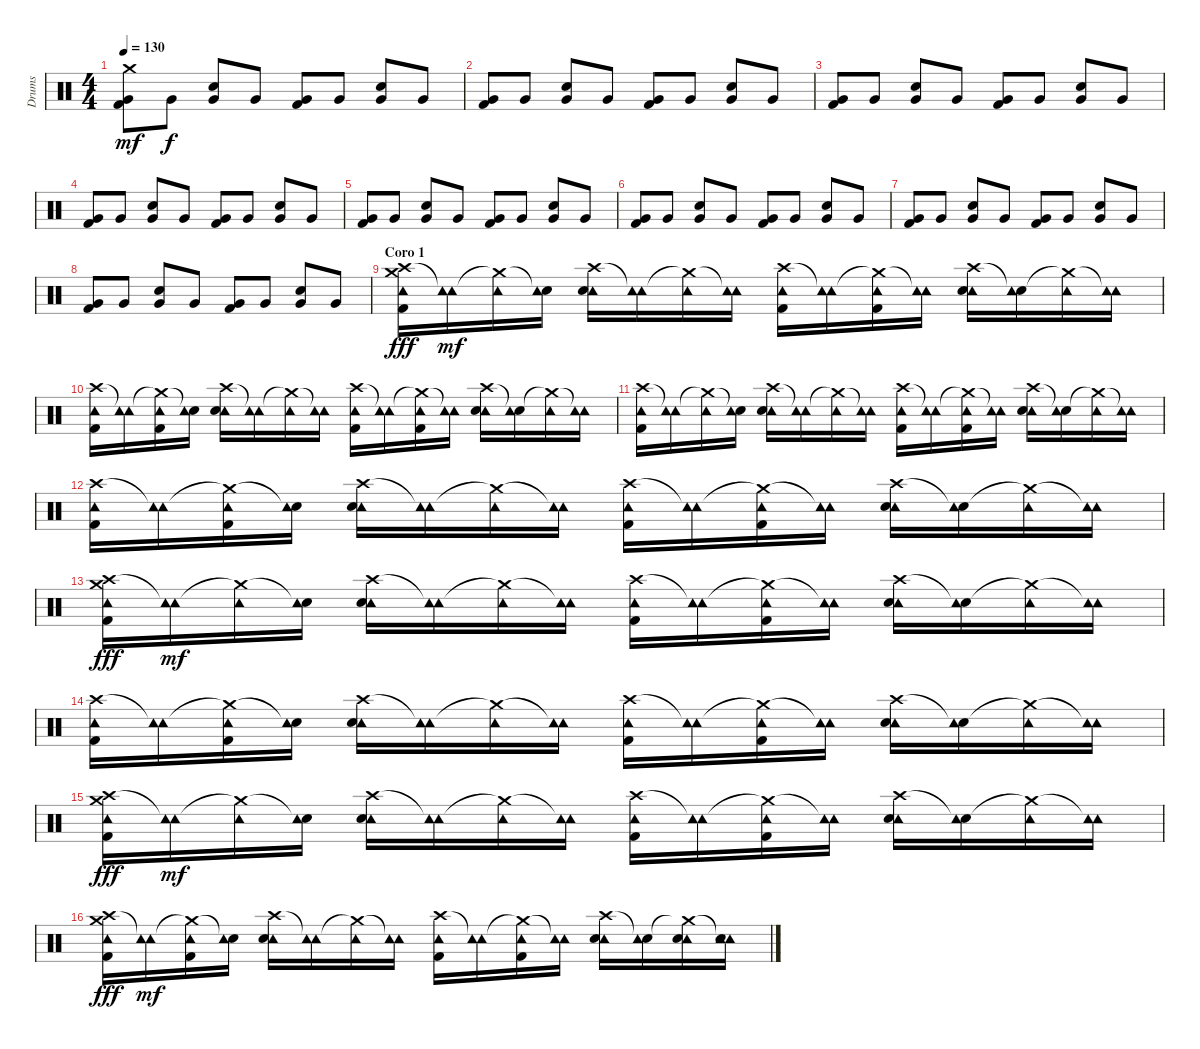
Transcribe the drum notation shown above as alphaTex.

\track ("Drums" "Drums") {instrument percussion}
\staff {score}
\articulation defaults
\ts (4 4)
\tempo 130
\clef neutral
\ks c
("Crash medium (hit)" "Very Low Tom (hit)" "Kick (hit) 2").8{dy mf} "Very Low Tom (hit)".8{dy f} ("Snare (hit) 2" "Very Low Tom (hit)").8 "Very Low Tom (hit)".8 ("Very Low Tom (hit)" "Kick (hit) 2").8 "Very Low Tom (hit)".8 ("Snare (hit) 2" "Very Low Tom (hit)").8 "Very Low Tom (hit)".8 |
("Very Low Tom (hit)" "Kick (hit) 2").8 "Very Low Tom (hit)".8 ("Snare (hit) 2" "Very Low Tom (hit)").8 "Very Low Tom (hit)".8 ("Very Low Tom (hit)" "Kick (hit) 2").8 "Very Low Tom (hit)".8 ("Snare (hit) 2" "Very Low Tom (hit)").8 "Very Low Tom (hit)".8 |
("Very Low Tom (hit)" "Kick (hit) 2").8 "Very Low Tom (hit)".8 ("Snare (hit) 2" "Very Low Tom (hit)").8 "Very Low Tom (hit)".8 ("Very Low Tom (hit)" "Kick (hit) 2").8 "Very Low Tom (hit)".8 ("Snare (hit) 2" "Very Low Tom (hit)").8 "Very Low Tom (hit)".8 |
("Very Low Tom (hit)" "Kick (hit) 2").8 "Very Low Tom (hit)".8 ("Snare (hit) 2" "Very Low Tom (hit)").8 "Very Low Tom (hit)".8 ("Very Low Tom (hit)" "Kick (hit) 2").8 "Very Low Tom (hit)".8 ("Snare (hit) 2" "Very Low Tom (hit)").8 "Very Low Tom (hit)".8 |
("Very Low Tom (hit)" "Kick (hit) 2").8 "Very Low Tom (hit)".8 ("Snare (hit) 2" "Very Low Tom (hit)").8 "Very Low Tom (hit)".8 ("Very Low Tom (hit)" "Kick (hit) 2").8 "Very Low Tom (hit)".8 ("Snare (hit) 2" "Very Low Tom (hit)").8 "Very Low Tom (hit)".8 |
("Very Low Tom (hit)" "Kick (hit) 2").8 "Very Low Tom (hit)".8 ("Snare (hit) 2" "Very Low Tom (hit)").8 "Very Low Tom (hit)".8 ("Very Low Tom (hit)" "Kick (hit) 2").8 "Very Low Tom (hit)".8 ("Snare (hit) 2" "Very Low Tom (hit)").8 "Very Low Tom (hit)".8 |
("Very Low Tom (hit)" "Kick (hit) 2").8 "Very Low Tom (hit)".8 ("Snare (hit) 2" "Very Low Tom (hit)").8 "Very Low Tom (hit)".8 ("Very Low Tom (hit)" "Kick (hit) 2").8 "Very Low Tom (hit)".8 ("Snare (hit) 2" "Very Low Tom (hit)").8 "Very Low Tom (hit)".8 |
("Very Low Tom (hit)" "Kick (hit) 2").8 "Very Low Tom (hit)".8 ("Snare (hit) 2" "Very Low Tom (hit)").8 "Very Low Tom (hit)".8 ("Very Low Tom (hit)" "Kick (hit) 2").8 "Very Low Tom (hit)".8 ("Snare (hit) 2" "Very Low Tom (hit)").8 "Very Low Tom (hit)".8 |
\section ("" "Coro 1 ")
("Crash high (hit)" "Tambourine (hit)" "Crash medium (hit)" "Kick (hit) 2").16{dy fff} ("Tambourine (hit)"{t} "Tambourine (hit)").16{dy mf} ("Crash medium (hit)"{t} "Tambourine (hit)").16 ("Snare (hit)"{t} "Tambourine (hit)").16 ("Crash high (hit)" "Tambourine (hit)" "Snare (hit) 2").16 ("Tambourine (hit)"{t} "Tambourine (hit)").16 ("Crash medium (hit)"{t} "Tambourine (hit)").16 ("Tambourine (hit)"{t} "Tambourine (hit)").16 ("Crash high (hit)" "Tambourine (hit)" "Kick (hit) 2").16 ("Tambourine (hit)"{t} "Tambourine (hit)").16 ("Crash medium (hit)"{t} "Tambourine (hit)" "Kick (hit) 2").16 ("Tambourine (hit)"{t} "Tambourine (hit)").16 ("Crash high (hit)" "Tambourine (hit)" "Snare (hit) 2").16 ("Snare (hit)"{t} "Tambourine (hit)").16 ("Crash medium (hit)"{t} "Tambourine (hit)").16 ("Tambourine (hit)"{t} "Tambourine (hit)").16 |
("Crash high (hit)" "Tambourine (hit)" "Kick (hit) 2").16 ("Tambourine (hit)"{t} "Tambourine (hit)").16 ("Crash medium (hit)"{t} "Tambourine (hit)" "Kick (hit) 2").16 ("Snare (hit)"{t} "Tambourine (hit)").16 ("Crash high (hit)" "Tambourine (hit)" "Snare (hit) 2").16 ("Tambourine (hit)"{t} "Tambourine (hit)").16 ("Crash medium (hit)"{t} "Tambourine (hit)").16 ("Tambourine (hit)"{t} "Tambourine (hit)").16 ("Crash high (hit)" "Tambourine (hit)" "Kick (hit) 2").16 ("Tambourine (hit)"{t} "Tambourine (hit)").16 ("Crash medium (hit)"{t} "Tambourine (hit)" "Kick (hit) 2").16 ("Tambourine (hit)"{t} "Tambourine (hit)").16 ("Crash high (hit)" "Tambourine (hit)" "Snare (hit) 2").16 ("Snare (hit)"{t} "Tambourine (hit)").16 ("Crash medium (hit)"{t} "Tambourine (hit)").16 ("Tambourine (hit)"{t} "Tambourine (hit)").16 |
("Crash high (hit)" "Tambourine (hit)" "Kick (hit) 2").16 ("Tambourine (hit)"{t} "Tambourine (hit)").16 ("Crash medium (hit)"{t} "Tambourine (hit)").16 ("Snare (hit)"{t} "Tambourine (hit)").16 ("Crash high (hit)" "Tambourine (hit)" "Snare (hit) 2").16 ("Tambourine (hit)"{t} "Tambourine (hit)").16 ("Crash medium (hit)"{t} "Tambourine (hit)").16 ("Tambourine (hit)"{t} "Tambourine (hit)").16 ("Crash high (hit)" "Tambourine (hit)" "Kick (hit) 2").16 ("Tambourine (hit)"{t} "Tambourine (hit)").16 ("Crash medium (hit)"{t} "Tambourine (hit)" "Kick (hit) 2").16 ("Tambourine (hit)"{t} "Tambourine (hit)").16 ("Crash high (hit)" "Tambourine (hit)" "Snare (hit) 2").16 ("Snare (hit)"{t} "Tambourine (hit)").16 ("Crash medium (hit)"{t} "Tambourine (hit)").16 ("Tambourine (hit)"{t} "Tambourine (hit)").16 |
("Crash high (hit)" "Tambourine (hit)" "Kick (hit) 2").16 ("Tambourine (hit)"{t} "Tambourine (hit)").16 ("Crash medium (hit)"{t} "Tambourine (hit)" "Kick (hit) 2").16 ("Snare (hit)"{t} "Tambourine (hit)").16 ("Crash high (hit)" "Tambourine (hit)" "Snare (hit) 2").16 ("Tambourine (hit)"{t} "Tambourine (hit)").16 ("Crash medium (hit)"{t} "Tambourine (hit)").16 ("Tambourine (hit)"{t} "Tambourine (hit)").16 ("Crash high (hit)" "Tambourine (hit)" "Kick (hit) 2").16 ("Tambourine (hit)"{t} "Tambourine (hit)").16 ("Crash medium (hit)"{t} "Tambourine (hit)" "Kick (hit) 2").16 ("Tambourine (hit)"{t} "Tambourine (hit)").16 ("Crash high (hit)" "Tambourine (hit)" "Snare (hit) 2").16 ("Snare (hit)"{t} "Tambourine (hit)").16 ("Crash medium (hit)"{t} "Tambourine (hit)").16 ("Tambourine (hit)"{t} "Tambourine (hit)").16 |
("Crash high (hit)" "Tambourine (hit)" "Crash medium (hit)" "Kick (hit) 2").16{dy fff} ("Tambourine (hit)"{t} "Tambourine (hit)").16{dy mf} ("Crash medium (hit)"{t} "Tambourine (hit)").16 ("Snare (hit)"{t} "Tambourine (hit)").16 ("Crash high (hit)" "Tambourine (hit)" "Snare (hit) 2").16 ("Tambourine (hit)"{t} "Tambourine (hit)").16 ("Crash medium (hit)"{t} "Tambourine (hit)").16 ("Tambourine (hit)"{t} "Tambourine (hit)").16 ("Crash high (hit)" "Tambourine (hit)" "Kick (hit) 2").16 ("Tambourine (hit)"{t} "Tambourine (hit)").16 ("Crash medium (hit)"{t} "Tambourine (hit)" "Kick (hit) 2").16 ("Tambourine (hit)"{t} "Tambourine (hit)").16 ("Crash high (hit)" "Tambourine (hit)" "Snare (hit) 2").16 ("Snare (hit)"{t} "Tambourine (hit)").16 ("Crash medium (hit)"{t} "Tambourine (hit)").16 ("Tambourine (hit)"{t} "Tambourine (hit)").16 |
("Crash high (hit)" "Tambourine (hit)" "Kick (hit) 2").16 ("Tambourine (hit)"{t} "Tambourine (hit)").16 ("Crash medium (hit)"{t} "Tambourine (hit)" "Kick (hit) 2").16 ("Snare (hit)"{t} "Tambourine (hit)").16 ("Crash high (hit)" "Tambourine (hit)" "Snare (hit) 2").16 ("Tambourine (hit)"{t} "Tambourine (hit)").16 ("Crash medium (hit)"{t} "Tambourine (hit)").16 ("Tambourine (hit)"{t} "Tambourine (hit)").16 ("Crash high (hit)" "Tambourine (hit)" "Kick (hit) 2").16 ("Tambourine (hit)"{t} "Tambourine (hit)").16 ("Crash medium (hit)"{t} "Tambourine (hit)" "Kick (hit) 2").16 ("Tambourine (hit)"{t} "Tambourine (hit)").16 ("Crash high (hit)" "Tambourine (hit)" "Snare (hit) 2").16 ("Snare (hit)"{t} "Tambourine (hit)").16 ("Crash medium (hit)"{t} "Tambourine (hit)").16 ("Tambourine (hit)"{t} "Tambourine (hit)").16 |
("Crash high (hit)" "Tambourine (hit)" "Crash medium (hit)" "Kick (hit) 2").16{dy fff} ("Tambourine (hit)"{t} "Tambourine (hit)").16{dy mf} ("Crash medium (hit)"{t} "Tambourine (hit)").16 ("Snare (hit)"{t} "Tambourine (hit)").16 ("Crash high (hit)" "Tambourine (hit)" "Snare (hit) 2").16 ("Tambourine (hit)"{t} "Tambourine (hit)").16 ("Crash medium (hit)"{t} "Tambourine (hit)").16 ("Tambourine (hit)"{t} "Tambourine (hit)").16 ("Crash high (hit)" "Tambourine (hit)" "Kick (hit) 2").16 ("Tambourine (hit)"{t} "Tambourine (hit)").16 ("Crash medium (hit)"{t} "Tambourine (hit)" "Kick (hit) 2").16 ("Tambourine (hit)"{t} "Tambourine (hit)").16 ("Crash high (hit)" "Tambourine (hit)" "Snare (hit) 2").16 ("Snare (hit)"{t} "Tambourine (hit)").16 ("Crash medium (hit)"{t} "Tambourine (hit)").16 ("Tambourine (hit)"{t} "Tambourine (hit)").16 |
("Crash high (hit)" "Tambourine (hit)" "Crash medium (hit)" "Kick (hit) 2").16{dy fff} ("Tambourine (hit)"{t} "Tambourine (hit)").16{dy mf} ("Crash medium (hit)"{t} "Tambourine (hit)" "Kick (hit) 2").16 ("Snare (hit)"{t} "Tambourine (hit)").16 ("Crash high (hit)" "Tambourine (hit)" "Snare (hit) 2").16 ("Tambourine (hit)"{t} "Tambourine (hit)").16 ("Crash medium (hit)"{t} "Tambourine (hit)").16 ("Tambourine (hit)"{t} "Tambourine (hit)").16 ("Crash high (hit)" "Tambourine (hit)" "Kick (hit) 2").16 ("Tambourine (hit)"{t} "Tambourine (hit)").16 ("Crash medium (hit)"{t} "Tambourine (hit)" "Kick (hit) 2").16 ("Tambourine (hit)"{t} "Tambourine (hit)").16 ("Crash high (hit)" "Tambourine (hit)" "Snare (hit) 2").16 ("Snare (hit)"{t} "Tambourine (hit)").16 ("Crash medium (hit)"{t} "Tambourine (hit)" "Snare (hit) 2").16 ("Tambourine (hit)"{t} "Tambourine (hit)" "Snare (hit) 2").16
